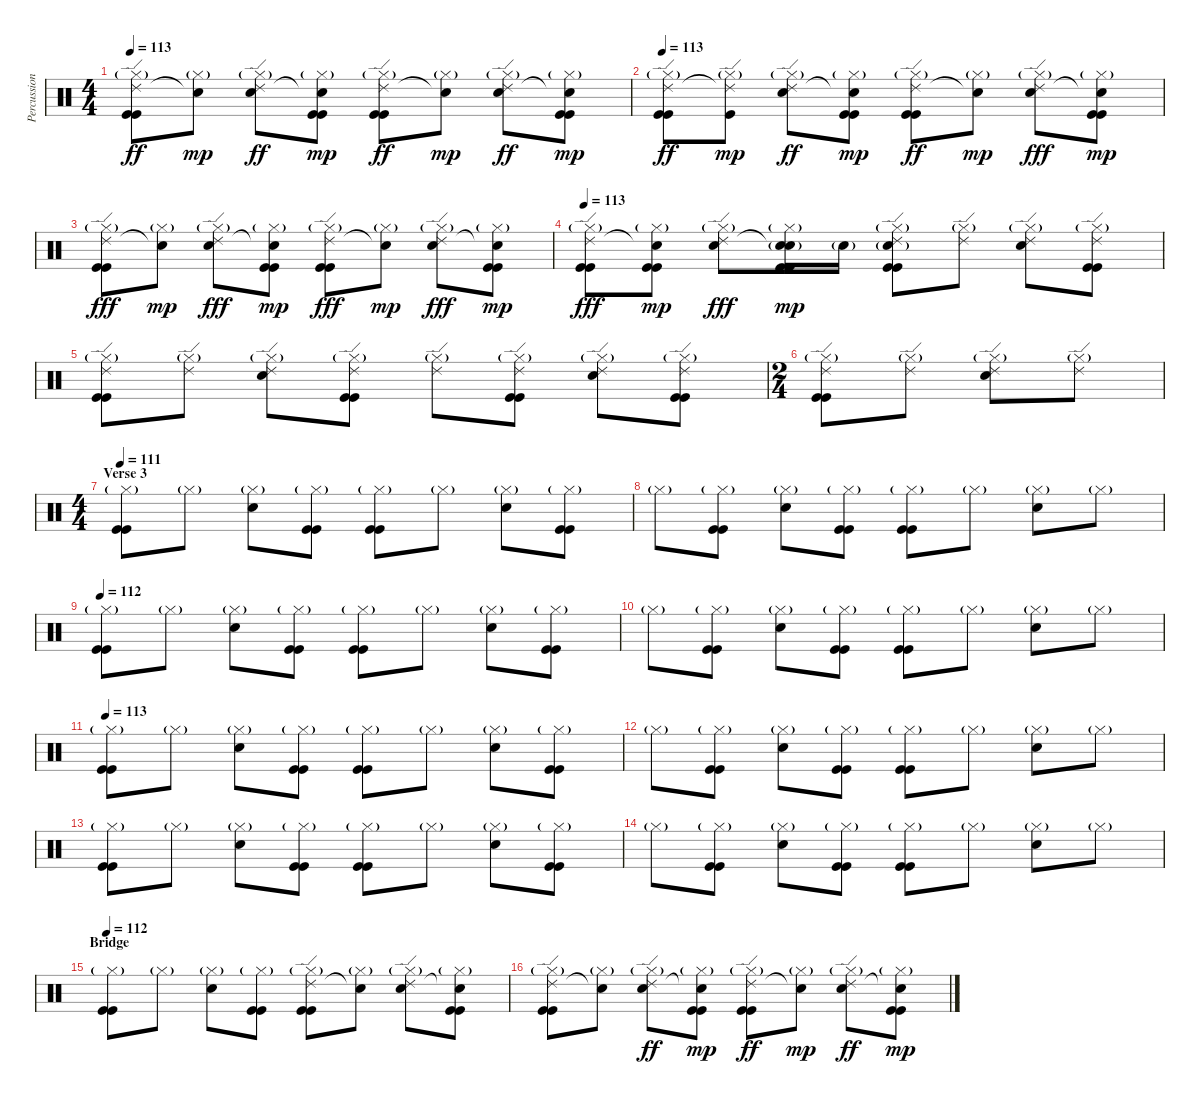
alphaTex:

\track ("Percussion" "Percussion") {instrument percussion}
\staff {score}
\articulation defaults
\ts (4 4)
\tempo 113
\clef neutral
\ks c
("Hi-Hat (closed)"{g} "Ride (edge) 2" "Kick (hit)" "Kick (hit)").8{dy ff} ("Hi-Hat (closed)"{g} "Snare (hit)"{t}).8{dy mp} ("Hi-Hat (closed)"{g} "Ride (edge) 2" "Snare (hit) 2").8{dy ff} ("Hi-Hat (closed)"{g} "Snare (hit)"{t} "Kick (hit)" "Kick (hit)").8{dy mp} ("Hi-Hat (closed)"{g} "Ride (edge) 2" "Kick (hit)" "Kick (hit)").8{dy ff} ("Hi-Hat (closed)"{g} "Snare (hit)"{t}).8{dy mp} ("Hi-Hat (closed)"{g} "Ride (edge) 2" "Snare (hit) 2").8{dy ff} ("Hi-Hat (closed)"{g} "Snare (hit)"{t} "Kick (hit)" "Kick (hit)").8{dy mp} |
\tempo 113
("Hi-Hat (closed)"{g} "Ride (edge) 2" "Kick (hit)" "Kick (hit)").8{dy ff} ("Hi-Hat (closed)"{g} "Ride (edge) 2"{t} "Kick (hit)").8{dy mp} ("Hi-Hat (closed)"{g} "Ride (edge) 2" "Snare (hit) 2").8{dy ff} ("Hi-Hat (closed)"{g} "Snare (hit)"{t} "Kick (hit)" "Kick (hit)").8{dy mp} ("Hi-Hat (closed)"{g} "Ride (edge) 2" "Kick (hit)" "Kick (hit)").8{dy ff} ("Hi-Hat (closed)"{g} "Snare (hit)"{t}).8{dy mp} ("Hi-Hat (closed)"{g} "Ride (edge) 2" "Snare (hit) 2").8{dy fff} ("Hi-Hat (closed)"{g} "Snare (hit)"{t} "Kick (hit)" "Kick (hit)").8{dy mp} |
("Hi-Hat (closed)"{g} "Ride (edge) 2" "Kick (hit)" "Kick (hit)").8{dy fff} ("Hi-Hat (closed)"{g} "Snare (hit)"{t}).8{dy mp} ("Hi-Hat (closed)"{g} "Ride (edge) 2" "Snare (hit) 2").8{dy fff} ("Hi-Hat (closed)"{g} "Snare (hit)"{t} "Kick (hit)" "Kick (hit)").8{dy mp} ("Hi-Hat (closed)"{g} "Ride (edge) 2" "Kick (hit)" "Kick (hit)").8{dy fff} ("Hi-Hat (closed)"{g} "Snare (hit)"{t}).8{dy mp} ("Hi-Hat (closed)"{g} "Ride (edge) 2" "Snare (hit) 2").8{dy fff} ("Hi-Hat (closed)"{g} "Snare (hit)"{t} "Kick (hit)" "Kick (hit)").8{dy mp} |
\tempo 113
("Hi-Hat (closed)"{g} "Ride (edge) 2" "Kick (hit)" "Kick (hit)").8{dy fff} ("Hi-Hat (closed)"{g} "Snare (hit)"{t} "Kick (hit)" "Kick (hit)").8{dy mp} ("Hi-Hat (closed)"{g} "Ride (edge) 2" "Snare (hit) 2").8{dy fff} ("Hi-Hat (closed)"{g} "Snare (hit)"{t} "Snare (hit) 2"{g} "Kick (hit)" "Kick (hit)").16{dy mp} "Snare (hit) 2"{g}.16 ("Hi-Hat (closed)"{g} "Ride (edge) 2" "Snare (hit) 2"{g} "Kick (hit)" "Kick (hit)").8 ("Hi-Hat (closed)"{g} "Ride (edge) 2").8 ("Hi-Hat (closed)"{g} "Ride (edge) 2" "Snare (hit) 2").8 ("Hi-Hat (closed)"{g} "Ride (edge) 2" "Kick (hit)" "Kick (hit)").8 |
("Hi-Hat (closed)"{g} "Ride (edge) 2" "Kick (hit)" "Kick (hit)").8 ("Hi-Hat (closed)"{g} "Ride (edge) 2").8 ("Hi-Hat (closed)"{g} "Ride (edge) 2" "Snare (hit) 2").8 ("Hi-Hat (closed)"{g} "Ride (edge) 2" "Kick (hit)" "Kick (hit)").8 ("Hi-Hat (closed)"{g} "Ride (edge) 2").8 ("Hi-Hat (closed)"{g} "Ride (edge) 2" "Kick (hit)" "Kick (hit)").8 ("Hi-Hat (closed)"{g} "Ride (edge) 2" "Snare (hit) 2").8 ("Hi-Hat (closed)"{g} "Ride (edge) 2" "Kick (hit)" "Kick (hit)").8 |
\ts (2 4)
("Hi-Hat (closed)"{g} "Ride (edge) 2" "Kick (hit)" "Kick (hit)").8 ("Hi-Hat (closed)"{g} "Ride (edge) 2").8 ("Hi-Hat (closed)"{g} "Ride (edge) 2" "Snare (hit) 2").8 ("Hi-Hat (closed)"{g} "Ride (edge) 2").8 |
\ts (4 4)
\section ("" "Verse 3")
\tempo 111
("Hi-Hat (closed)"{g} "Kick (hit)" "Kick (hit)").8 "Hi-Hat (closed)"{g}.8 ("Hi-Hat (closed)"{g} "Snare (hit) 2").8 ("Hi-Hat (closed)"{g} "Kick (hit)" "Kick (hit)").8 ("Hi-Hat (closed)"{g} "Kick (hit)" "Kick (hit)").8 "Hi-Hat (closed)"{g}.8 ("Hi-Hat (closed)"{g} "Snare (hit) 2").8 ("Hi-Hat (closed)"{g} "Kick (hit)" "Kick (hit)").8 |
"Hi-Hat (closed)"{g}.8 ("Hi-Hat (closed)"{g} "Kick (hit)" "Kick (hit)").8 ("Hi-Hat (closed)"{g} "Snare (hit) 2").8 ("Hi-Hat (closed)"{g} "Kick (hit)" "Kick (hit)").8 ("Hi-Hat (closed)"{g} "Kick (hit)" "Kick (hit)").8 "Hi-Hat (closed)"{g}.8 ("Hi-Hat (closed)"{g} "Snare (hit) 2").8 "Hi-Hat (closed)"{g}.8 |
\tempo 112
("Hi-Hat (closed)"{g} "Kick (hit)" "Kick (hit)").8 "Hi-Hat (closed)"{g}.8 ("Hi-Hat (closed)"{g} "Snare (hit) 2").8 ("Hi-Hat (closed)"{g} "Kick (hit)" "Kick (hit)").8 ("Hi-Hat (closed)"{g} "Kick (hit)" "Kick (hit)").8 "Hi-Hat (closed)"{g}.8 ("Hi-Hat (closed)"{g} "Snare (hit) 2").8 ("Hi-Hat (closed)"{g} "Kick (hit)" "Kick (hit)").8 |
"Hi-Hat (closed)"{g}.8 ("Hi-Hat (closed)"{g} "Kick (hit)" "Kick (hit)").8 ("Hi-Hat (closed)"{g} "Snare (hit) 2").8 ("Hi-Hat (closed)"{g} "Kick (hit)" "Kick (hit)").8 ("Hi-Hat (closed)"{g} "Kick (hit)" "Kick (hit)").8 "Hi-Hat (closed)"{g}.8 ("Hi-Hat (closed)"{g} "Snare (hit) 2").8 "Hi-Hat (closed)"{g}.8 |
\tempo 113
("Hi-Hat (closed)"{g} "Kick (hit)" "Kick (hit)").8 "Hi-Hat (closed)"{g}.8 ("Hi-Hat (closed)"{g} "Snare (hit) 2").8 ("Hi-Hat (closed)"{g} "Kick (hit)" "Kick (hit)").8 ("Hi-Hat (closed)"{g} "Kick (hit)" "Kick (hit)").8 "Hi-Hat (closed)"{g}.8 ("Hi-Hat (closed)"{g} "Snare (hit) 2").8 ("Hi-Hat (closed)"{g} "Kick (hit)" "Kick (hit)").8 |
"Hi-Hat (closed)"{g}.8 ("Hi-Hat (closed)"{g} "Kick (hit)" "Kick (hit)").8 ("Hi-Hat (closed)"{g} "Snare (hit) 2").8 ("Hi-Hat (closed)"{g} "Kick (hit)" "Kick (hit)").8 ("Hi-Hat (closed)"{g} "Kick (hit)" "Kick (hit)").8 "Hi-Hat (closed)"{g}.8 ("Hi-Hat (closed)"{g} "Snare (hit) 2").8 "Hi-Hat (closed)"{g}.8 |
("Hi-Hat (closed)"{g} "Kick (hit)" "Kick (hit)").8 "Hi-Hat (closed)"{g}.8 ("Hi-Hat (closed)"{g} "Snare (hit) 2").8 ("Hi-Hat (closed)"{g} "Kick (hit)" "Kick (hit)").8 ("Hi-Hat (closed)"{g} "Kick (hit)" "Kick (hit)").8 "Hi-Hat (closed)"{g}.8 ("Hi-Hat (closed)"{g} "Snare (hit) 2").8 ("Hi-Hat (closed)"{g} "Kick (hit)" "Kick (hit)").8 |
"Hi-Hat (closed)"{g}.8 ("Hi-Hat (closed)"{g} "Kick (hit)" "Kick (hit)").8 ("Hi-Hat (closed)"{g} "Snare (hit) 2").8 ("Hi-Hat (closed)"{g} "Kick (hit)" "Kick (hit)").8 ("Hi-Hat (closed)"{g} "Kick (hit)" "Kick (hit)").8 "Hi-Hat (closed)"{g}.8 ("Hi-Hat (closed)"{g} "Snare (hit) 2").8 "Hi-Hat (closed)"{g}.8 |
\section ("" "Bridge")
\tempo 112
("Hi-Hat (closed)"{g} "Kick (hit)" "Kick (hit)").8 "Hi-Hat (closed)"{g}.8 ("Hi-Hat (closed)"{g} "Snare (hit) 2").8 ("Hi-Hat (closed)"{g} "Kick (hit)" "Kick (hit)").8 ("Hi-Hat (closed)"{g} "Ride (edge) 2" "Kick (hit)" "Kick (hit)").8 ("Hi-Hat (closed)"{g} "Snare (hit)"{t}).8 ("Hi-Hat (closed)"{g} "Ride (edge) 2" "Snare (hit) 2").8 ("Hi-Hat (closed)"{g} "Snare (hit)"{t} "Kick (hit)" "Kick (hit)").8 |
("Hi-Hat (closed)"{g} "Ride (edge) 2" "Kick (hit)" "Kick (hit)").8 ("Hi-Hat (closed)"{g} "Snare (hit)"{t}).8 ("Hi-Hat (closed)"{g} "Ride (edge) 2" "Snare (hit) 2").8{dy ff} ("Hi-Hat (closed)"{g} "Snare (hit)"{t} "Kick (hit)" "Kick (hit)").8{dy mp} ("Hi-Hat (closed)"{g} "Ride (edge) 2" "Kick (hit)" "Kick (hit)").8{dy ff} ("Hi-Hat (closed)"{g} "Snare (hit)"{t}).8{dy mp} ("Hi-Hat (closed)"{g} "Ride (edge) 2" "Snare (hit) 2").8{dy ff} ("Hi-Hat (closed)"{g} "Snare (hit)"{t} "Kick (hit)" "Kick (hit)").8{dy mp}
